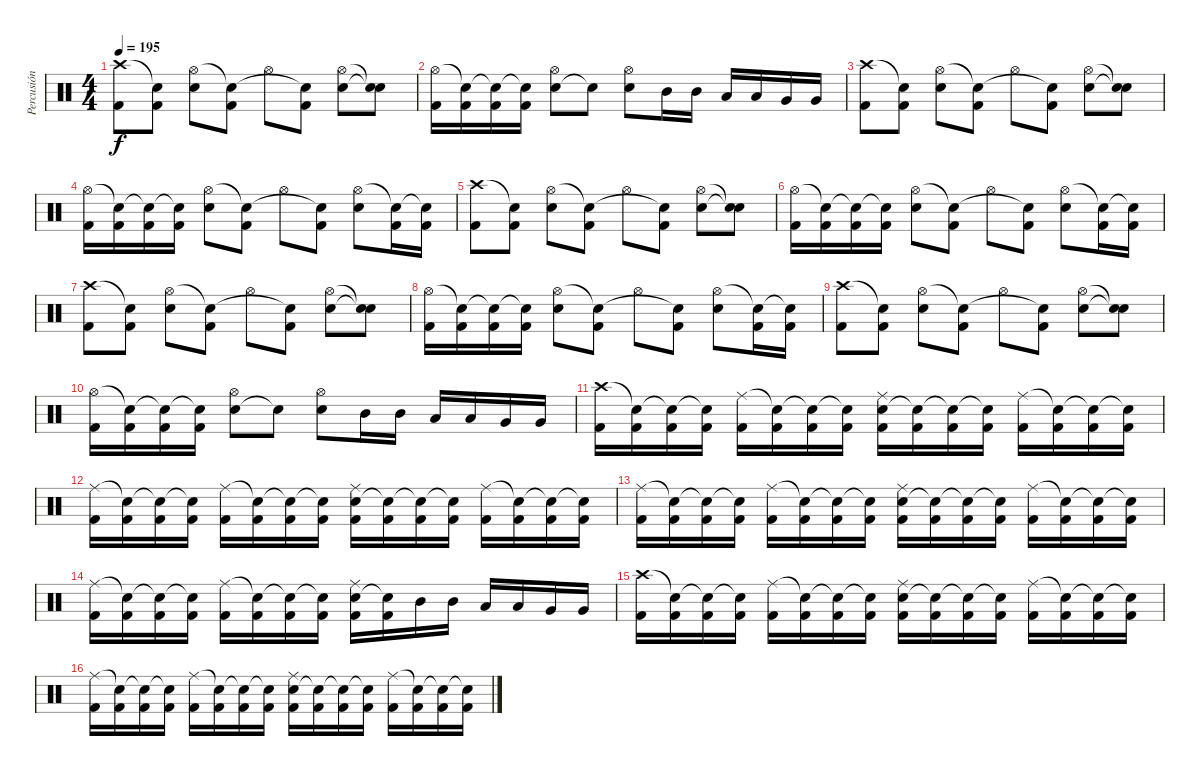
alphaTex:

\track ("Percusión" "Percusión") {instrument percussion}
\staff {score}
\articulation defaults
\ts (4 4)
\tempo 195
\clef neutral
\ks c
("Kick (hit) 2" "Crash high (hit)").8{dy f} ("Kick (hit) 2" "Snare (hit)"{t}).8 ("Snare (hit) 2" "Hi-Hat (open)").8 ("Kick (hit) 2" "Snare (hit)"{t}).8 "Hi-Hat (open)".8 ("Kick (hit) 2" "Snare (hit)"{t}).8 ("Snare (hit) 2" "Hi-Hat (open)").8 ("Snare (hit)"{t} "Snare (hit)"{t}).8 |
("Kick (hit) 2" "Hi-Hat (open)").16 ("Kick (hit) 2" "Snare (hit)"{t}).16 ("Kick (hit) 2" "Snare (hit)"{t}).16 ("Kick (hit) 2" "Snare (hit)"{t}).16 ("Snare (hit) 2" "Hi-Hat (open)").8 "Snare (hit)"{t}.8 ("Snare (hit) 2" "Hi-Hat (open)").8 "Mid Tom (hit)".16 "Mid Tom (hit)".16 "Low Tom (hit)".16 "Low Tom (hit)".16 "Very Low Tom (hit)".16 "Very Low Tom (hit)".16 |
("Kick (hit) 2" "Crash high (hit)").8 ("Kick (hit) 2" "Snare (hit)"{t}).8 ("Snare (hit) 2" "Hi-Hat (open)").8 ("Kick (hit) 2" "Snare (hit)"{t}).8 "Hi-Hat (open)".8 ("Kick (hit) 2" "Snare (hit)"{t}).8 ("Snare (hit) 2" "Hi-Hat (open)").8 ("Snare (hit)"{t} "Snare (hit)"{t}).8 |
("Kick (hit) 2" "Hi-Hat (open)").16 ("Kick (hit) 2" "Snare (hit)"{t}).16 ("Kick (hit) 2" "Snare (hit)"{t}).16 ("Kick (hit) 2" "Snare (hit)"{t}).16 ("Snare (hit) 2" "Hi-Hat (open)").8 ("Kick (hit) 2" "Snare (hit)"{t}).8 "Hi-Hat (open)".8 ("Kick (hit) 2" "Snare (hit)"{t}).8 ("Snare (hit) 2" "Hi-Hat (open)").8 ("Kick (hit) 2" "Snare (hit)"{t}).16 ("Kick (hit) 2" "Snare (hit)"{t}).16 |
("Kick (hit) 2" "Crash high (hit)").8 ("Kick (hit) 2" "Snare (hit)"{t}).8 ("Snare (hit) 2" "Hi-Hat (open)").8 ("Kick (hit) 2" "Snare (hit)"{t}).8 "Hi-Hat (open)".8 ("Kick (hit) 2" "Snare (hit)"{t}).8 ("Snare (hit) 2" "Hi-Hat (open)").8 ("Snare (hit)"{t} "Snare (hit)"{t}).8 |
("Kick (hit) 2" "Hi-Hat (open)").16 ("Kick (hit) 2" "Snare (hit)"{t}).16 ("Kick (hit) 2" "Snare (hit)"{t}).16 ("Kick (hit) 2" "Snare (hit)"{t}).16 ("Snare (hit) 2" "Hi-Hat (open)").8 ("Kick (hit) 2" "Snare (hit)"{t}).8 "Hi-Hat (open)".8 ("Kick (hit) 2" "Snare (hit)"{t}).8 ("Snare (hit) 2" "Hi-Hat (open)").8 ("Kick (hit) 2" "Snare (hit)"{t}).16 ("Kick (hit) 2" "Snare (hit)"{t}).16 |
("Kick (hit) 2" "Crash high (hit)").8 ("Kick (hit) 2" "Snare (hit)"{t}).8 ("Snare (hit) 2" "Hi-Hat (open)").8 ("Kick (hit) 2" "Snare (hit)"{t}).8 "Hi-Hat (open)".8 ("Kick (hit) 2" "Snare (hit)"{t}).8 ("Snare (hit) 2" "Hi-Hat (open)").8 ("Snare (hit)"{t} "Snare (hit)"{t}).8 |
("Kick (hit) 2" "Hi-Hat (open)").16 ("Kick (hit) 2" "Snare (hit)"{t}).16 ("Kick (hit) 2" "Snare (hit)"{t}).16 ("Kick (hit) 2" "Snare (hit)"{t}).16 ("Snare (hit) 2" "Hi-Hat (open)").8 ("Kick (hit) 2" "Snare (hit)"{t}).8 "Hi-Hat (open)".8 ("Kick (hit) 2" "Snare (hit)"{t}).8 ("Snare (hit) 2" "Hi-Hat (open)").8 ("Kick (hit) 2" "Snare (hit)"{t}).16 ("Kick (hit) 2" "Snare (hit)"{t}).16 |
("Kick (hit) 2" "Crash high (hit)").8 ("Kick (hit) 2" "Snare (hit)"{t}).8 ("Snare (hit) 2" "Hi-Hat (open)").8 ("Kick (hit) 2" "Snare (hit)"{t}).8 "Hi-Hat (open)".8 ("Kick (hit) 2" "Snare (hit)"{t}).8 ("Snare (hit) 2" "Hi-Hat (open)").8 ("Snare (hit)"{t} "Snare (hit)"{t}).8 |
("Kick (hit) 2" "Hi-Hat (open)").16 ("Kick (hit) 2" "Snare (hit)"{t}).16 ("Kick (hit) 2" "Snare (hit)"{t}).16 ("Kick (hit) 2" "Snare (hit)"{t}).16 ("Snare (hit) 2" "Hi-Hat (open)").8 "Snare (hit)"{t}.8 ("Snare (hit) 2" "Hi-Hat (open)").8 "Mid Tom (hit)".16 "Mid Tom (hit)".16 "Low Tom (hit)".16 "Low Tom (hit)".16 "Very Low Tom (hit)".16 "Very Low Tom (hit)".16 |
("Kick (hit) 2" "Crash high (hit)").16 ("Kick (hit) 2" "Snare (hit)"{t}).16 ("Kick (hit) 2" "Snare (hit)"{t}).16 ("Kick (hit) 2" "Snare (hit)"{t}).16 ("Kick (hit) 2" "Ride (middle)").16 ("Kick (hit) 2" "Snare (hit)"{t}).16 ("Kick (hit) 2" "Snare (hit)"{t}).16 ("Kick (hit) 2" "Snare (hit)"{t}).16 ("Kick (hit) 2" "Snare (hit) 2" "Ride (middle)").16 ("Kick (hit) 2" "Snare (hit)"{t}).16 ("Kick (hit) 2" "Snare (hit)"{t}).16 ("Kick (hit) 2" "Snare (hit)"{t}).16 ("Kick (hit) 2" "Ride (middle)").16 ("Kick (hit) 2" "Snare (hit)"{t}).16 ("Kick (hit) 2" "Snare (hit)"{t}).16 ("Kick (hit) 2" "Snare (hit)"{t}).16 |
("Kick (hit) 2" "Ride (middle)").16 ("Kick (hit) 2" "Snare (hit)"{t}).16 ("Kick (hit) 2" "Snare (hit)"{t}).16 ("Kick (hit) 2" "Snare (hit)"{t}).16 ("Kick (hit) 2" "Ride (middle)").16 ("Kick (hit) 2" "Snare (hit)"{t}).16 ("Kick (hit) 2" "Snare (hit)"{t}).16 ("Kick (hit) 2" "Snare (hit)"{t}).16 ("Kick (hit) 2" "Snare (hit) 2" "Ride (middle)").16 ("Kick (hit) 2" "Snare (hit)"{t}).16 ("Kick (hit) 2" "Snare (hit)"{t}).16 ("Kick (hit) 2" "Snare (hit)"{t}).16 ("Kick (hit) 2" "Ride (middle)").16 ("Kick (hit) 2" "Snare (hit)"{t}).16 ("Kick (hit) 2" "Snare (hit)"{t}).16 ("Kick (hit) 2" "Snare (hit)"{t}).16 |
("Kick (hit) 2" "Ride (middle)").16 ("Kick (hit) 2" "Snare (hit)"{t}).16 ("Kick (hit) 2" "Snare (hit)"{t}).16 ("Kick (hit) 2" "Snare (hit)"{t}).16 ("Kick (hit) 2" "Ride (middle)").16 ("Kick (hit) 2" "Snare (hit)"{t}).16 ("Kick (hit) 2" "Snare (hit)"{t}).16 ("Kick (hit) 2" "Snare (hit)"{t}).16 ("Kick (hit) 2" "Snare (hit) 2" "Ride (middle)").16 ("Kick (hit) 2" "Snare (hit)"{t}).16 ("Kick (hit) 2" "Snare (hit)"{t}).16 ("Kick (hit) 2" "Snare (hit)"{t}).16 ("Kick (hit) 2" "Ride (middle)").16 ("Kick (hit) 2" "Snare (hit)"{t}).16 ("Kick (hit) 2" "Snare (hit)"{t}).16 ("Kick (hit) 2" "Snare (hit)"{t}).16 |
("Kick (hit) 2" "Ride (middle)").16 ("Kick (hit) 2" "Snare (hit)"{t}).16 ("Kick (hit) 2" "Snare (hit)"{t}).16 ("Kick (hit) 2" "Snare (hit)"{t}).16 ("Kick (hit) 2" "Ride (middle)").16 ("Kick (hit) 2" "Snare (hit)"{t}).16 ("Kick (hit) 2" "Snare (hit)"{t}).16 ("Kick (hit) 2" "Snare (hit)"{t}).16 ("Kick (hit) 2" "Snare (hit) 2" "Ride (middle)").16 ("Kick (hit) 2" "Snare (hit)"{t}).16 "Mid Tom (hit)".16 "Mid Tom (hit)".16 "Low Tom (hit)".16 "Low Tom (hit)".16 "Very Low Tom (hit)".16 "Very Low Tom (hit)".16 |
("Kick (hit) 2" "Crash high (hit)").16 ("Kick (hit) 2" "Snare (hit)"{t}).16 ("Kick (hit) 2" "Snare (hit)"{t}).16 ("Kick (hit) 2" "Snare (hit)"{t}).16 ("Kick (hit) 2" "Ride (middle)").16 ("Kick (hit) 2" "Snare (hit)"{t}).16 ("Kick (hit) 2" "Snare (hit)"{t}).16 ("Kick (hit) 2" "Snare (hit)"{t}).16 ("Kick (hit) 2" "Snare (hit) 2" "Ride (middle)").16 ("Kick (hit) 2" "Snare (hit)"{t}).16 ("Kick (hit) 2" "Snare (hit)"{t}).16 ("Kick (hit) 2" "Snare (hit)"{t}).16 ("Kick (hit) 2" "Ride (middle)").16 ("Kick (hit) 2" "Snare (hit)"{t}).16 ("Kick (hit) 2" "Snare (hit)"{t}).16 ("Kick (hit) 2" "Snare (hit)"{t}).16 |
("Kick (hit) 2" "Ride (middle)").16 ("Kick (hit) 2" "Snare (hit)"{t}).16 ("Kick (hit) 2" "Snare (hit)"{t}).16 ("Kick (hit) 2" "Snare (hit)"{t}).16 ("Kick (hit) 2" "Ride (middle)").16 ("Kick (hit) 2" "Snare (hit)"{t}).16 ("Kick (hit) 2" "Snare (hit)"{t}).16 ("Kick (hit) 2" "Snare (hit)"{t}).16 ("Kick (hit) 2" "Snare (hit) 2" "Ride (middle)").16 ("Kick (hit) 2" "Snare (hit)"{t}).16 ("Kick (hit) 2" "Snare (hit)"{t}).16 ("Kick (hit) 2" "Snare (hit)"{t}).16 ("Kick (hit) 2" "Ride (middle)").16 ("Kick (hit) 2" "Snare (hit)"{t}).16 ("Kick (hit) 2" "Snare (hit)"{t}).16 ("Kick (hit) 2" "Snare (hit)"{t}).16
